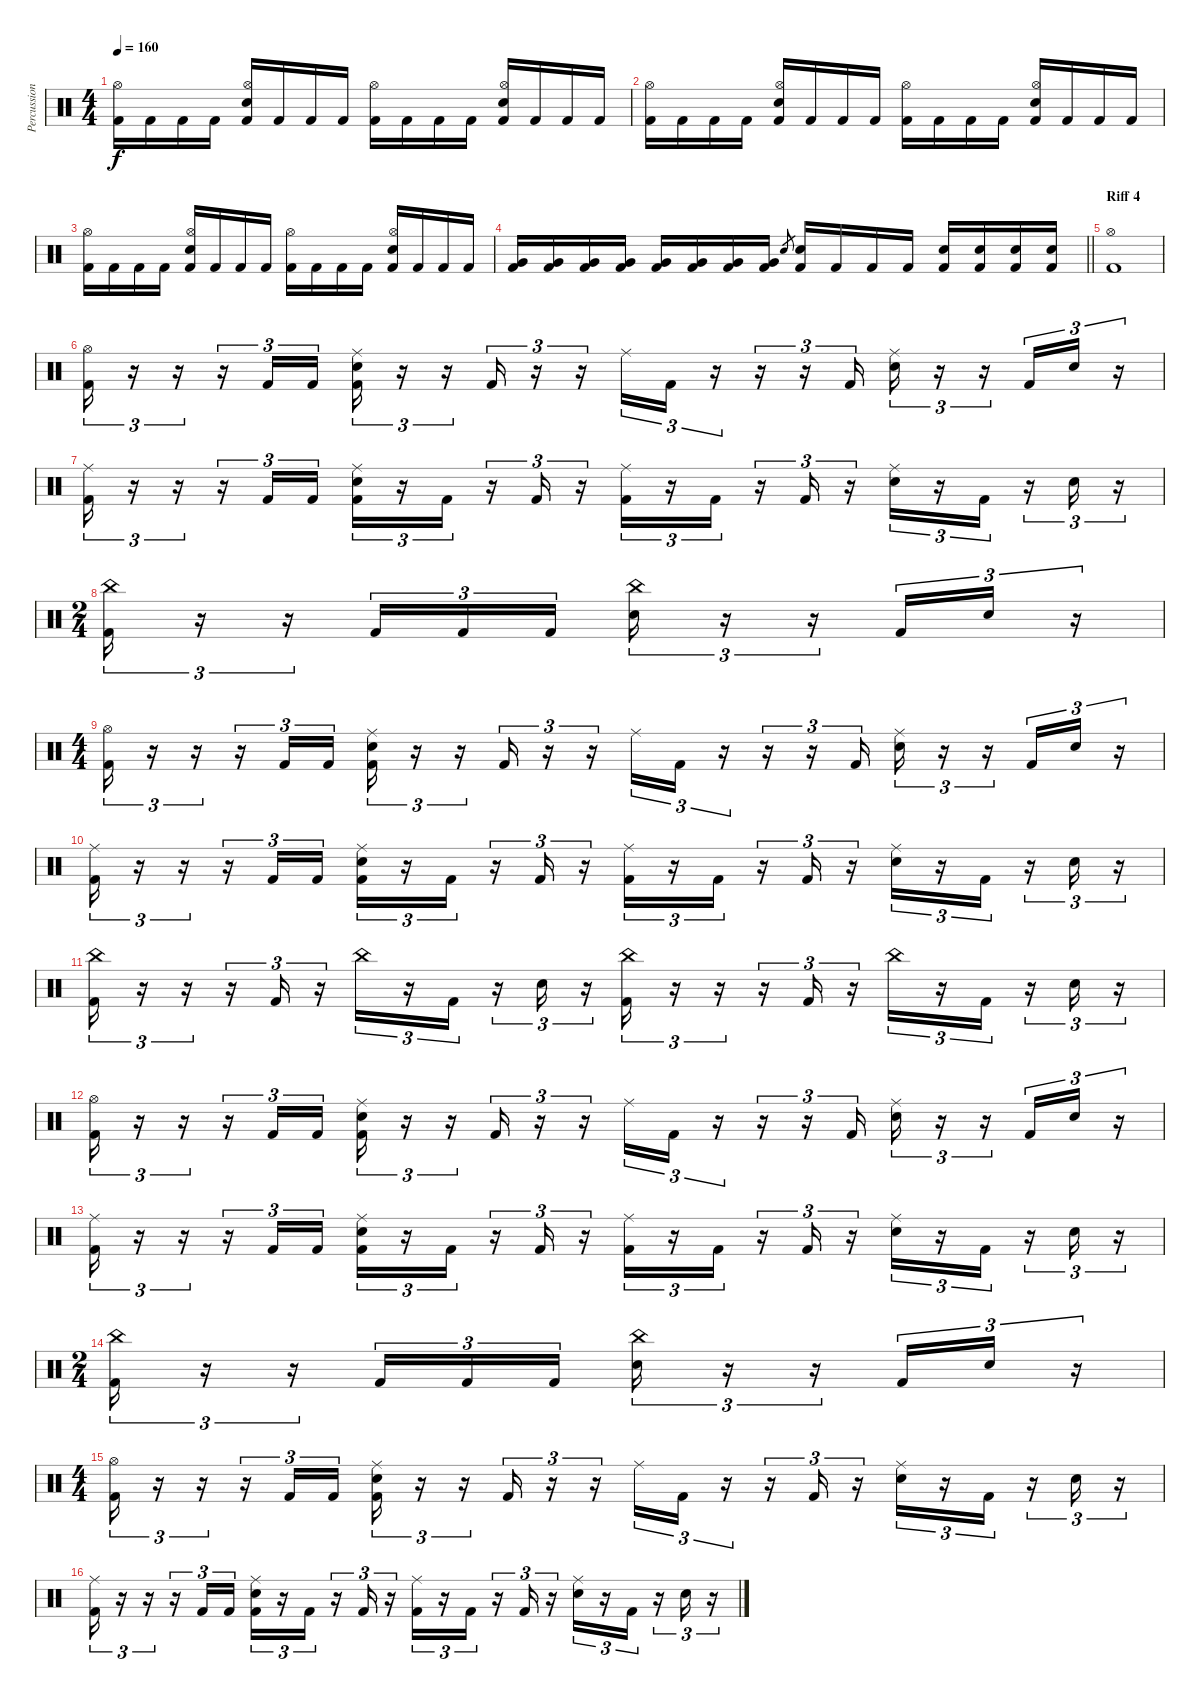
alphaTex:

\track ("Percussions" "Percussion") {instrument percussion bank 1}
\staff {score}
\articulation defaults
\ts (4 4)
\tempo 160
\clef neutral
\ks c
("Kick (hit) 2" "Hi-Hat (open)").16{dy f} "Kick (hit) 2".16 "Kick (hit) 2".16 "Kick (hit) 2".16 ("Kick (hit) 2" "Electric Snare (hit)" "Hi-Hat (open)").16 "Kick (hit) 2".16 "Kick (hit) 2".16 "Kick (hit) 2".16 ("Kick (hit) 2" "Hi-Hat (open)").16 "Kick (hit) 2".16 "Kick (hit) 2".16 "Kick (hit) 2".16 ("Kick (hit) 2" "Electric Snare (hit)" "Hi-Hat (open)").16 "Kick (hit) 2".16 "Kick (hit) 2".16 "Kick (hit) 2".16 |
("Kick (hit) 2" "Hi-Hat (open)").16 "Kick (hit) 2".16 "Kick (hit) 2".16 "Kick (hit) 2".16 ("Kick (hit) 2" "Electric Snare (hit)" "Hi-Hat (open)").16 "Kick (hit) 2".16 "Kick (hit) 2".16 "Kick (hit) 2".16 ("Kick (hit) 2" "Hi-Hat (open)").16 "Kick (hit) 2".16 "Kick (hit) 2".16 "Kick (hit) 2".16 ("Kick (hit) 2" "Electric Snare (hit)" "Hi-Hat (open)").16 "Kick (hit) 2".16 "Kick (hit) 2".16 "Kick (hit) 2".16 |
("Kick (hit) 2" "Hi-Hat (open)").16 "Kick (hit) 2".16 "Kick (hit) 2".16 "Kick (hit) 2".16 ("Kick (hit) 2" "Electric Snare (hit)" "Hi-Hat (open)").16 "Kick (hit) 2".16 "Kick (hit) 2".16 "Kick (hit) 2".16 ("Kick (hit) 2" "Hi-Hat (open)").16 "Kick (hit) 2".16 "Kick (hit) 2".16 "Kick (hit) 2".16 ("Kick (hit) 2" "Electric Snare (hit)" "Hi-Hat (open)").16 "Kick (hit) 2".16 "Kick (hit) 2".16 "Kick (hit) 2".16 |
\barLineRight lightlight
("Kick (hit) 2" "Very Low Tom (hit)").16 ("Kick (hit) 2" "Very Low Tom (hit)").16 ("Kick (hit) 2" "Very Low Tom (hit)").16 ("Kick (hit) 2" "Very Low Tom (hit)").16 ("Kick (hit) 2" "Very Low Tom (hit)").16 ("Kick (hit) 2" "Very Low Tom (hit)").16 ("Kick (hit) 2" "Very Low Tom (hit)").16 ("Kick (hit) 2" "Very Low Tom (hit)").16 "Electric Snare (hit)".8{gr} ("Kick (hit) 2" "Electric Snare (hit)").16 "Kick (hit) 2".16 "Kick (hit) 2".16 "Kick (hit) 2".16 ("Kick (hit) 2" "Electric Snare (hit)").16 ("Kick (hit) 2" "Electric Snare (hit)").16 ("Kick (hit) 2" "Electric Snare (hit)").16 ("Kick (hit) 2" "Electric Snare (hit)").16 |
\section ("" "Riff 4")
("Kick (hit) 2" "Hi-Hat (open)").1 |
("Kick (hit) 2" "Hi-Hat (open)").16{tu (3 2)} r.16{tu (3 2)} r.16{tu (3 2)} r.16{tu (3 2)} "Kick (hit) 2".16{tu (3 2)} "Kick (hit) 2".16{tu (3 2)} ("Kick (hit) 2" "Electric Snare (hit)" "Ride (middle)").16{tu (3 2)} r.16{tu (3 2)} r.16{tu (3 2)} "Kick (hit) 2".16{tu (3 2)} r.16{tu (3 2)} r.16{tu (3 2)} "Ride (middle)".16{tu (3 2)} "Kick (hit) 2".16{tu (3 2)} r.16{tu (3 2)} r.16{tu (3 2)} r.16{tu (3 2)} "Kick (hit) 2".16{tu (3 2)} ("Electric Snare (hit)" "Ride (middle)").16{tu (3 2)} r.16{tu (3 2)} r.16{tu (3 2)} "Kick (hit) 2".16{tu (3 2)} "Electric Snare (hit)".16{tu (3 2)} r.16{tu (3 2)} |
("Kick (hit) 2" "Ride (middle)").16{tu (3 2)} r.16{tu (3 2)} r.16{tu (3 2)} r.16{tu (3 2)} "Kick (hit) 2".16{tu (3 2)} "Kick (hit) 2".16{tu (3 2)} ("Kick (hit) 2" "Electric Snare (hit)" "Ride (middle)").16{tu (3 2)} r.16{tu (3 2)} "Kick (hit) 2".16{tu (3 2)} r.16{tu (3 2)} "Kick (hit) 2".16{tu (3 2)} r.16{tu (3 2)} ("Kick (hit) 2" "Ride (middle)").16{tu (3 2)} r.16{tu (3 2)} "Kick (hit) 2".16{tu (3 2)} r.16{tu (3 2)} "Kick (hit) 2".16{tu (3 2)} r.16{tu (3 2)} ("Electric Snare (hit)" "Ride (middle)").16{tu (3 2)} r.16{tu (3 2)} "Kick (hit) 2".16{tu (3 2)} r.16{tu (3 2)} "Electric Snare (hit)".16{tu (3 2)} r.16{tu (3 2)} |
\ts (2 4)
("Kick (hit) 2" "China (hit)").16{tu (3 2)} r.16{tu (3 2)} r.16{tu (3 2)} "Kick (hit) 2".16{tu (3 2)} "Kick (hit) 2".16{tu (3 2)} "Kick (hit) 2".16{tu (3 2)} ("Electric Snare (hit)" "China (hit)").16{tu (3 2)} r.16{tu (3 2)} r.16{tu (3 2)} "Kick (hit) 2".16{tu (3 2)} "Electric Snare (hit)".16{tu (3 2)} r.16{tu (3 2)} |
\ts (4 4)
("Kick (hit) 2" "Hi-Hat (open)").16{tu (3 2)} r.16{tu (3 2)} r.16{tu (3 2)} r.16{tu (3 2)} "Kick (hit) 2".16{tu (3 2)} "Kick (hit) 2".16{tu (3 2)} ("Kick (hit) 2" "Electric Snare (hit)" "Ride (middle)").16{tu (3 2)} r.16{tu (3 2)} r.16{tu (3 2)} "Kick (hit) 2".16{tu (3 2)} r.16{tu (3 2)} r.16{tu (3 2)} "Ride (middle)".16{tu (3 2)} "Kick (hit) 2".16{tu (3 2)} r.16{tu (3 2)} r.16{tu (3 2)} r.16{tu (3 2)} "Kick (hit) 2".16{tu (3 2)} ("Electric Snare (hit)" "Ride (middle)").16{tu (3 2)} r.16{tu (3 2)} r.16{tu (3 2)} "Kick (hit) 2".16{tu (3 2)} "Electric Snare (hit)".16{tu (3 2)} r.16{tu (3 2)} |
("Kick (hit) 2" "Ride (middle)").16{tu (3 2)} r.16{tu (3 2)} r.16{tu (3 2)} r.16{tu (3 2)} "Kick (hit) 2".16{tu (3 2)} "Kick (hit) 2".16{tu (3 2)} ("Kick (hit) 2" "Electric Snare (hit)" "Ride (middle)").16{tu (3 2)} r.16{tu (3 2)} "Kick (hit) 2".16{tu (3 2)} r.16{tu (3 2)} "Kick (hit) 2".16{tu (3 2)} r.16{tu (3 2)} ("Kick (hit) 2" "Ride (middle)").16{tu (3 2)} r.16{tu (3 2)} "Kick (hit) 2".16{tu (3 2)} r.16{tu (3 2)} "Kick (hit) 2".16{tu (3 2)} r.16{tu (3 2)} ("Electric Snare (hit)" "Ride (middle)").16{tu (3 2)} r.16{tu (3 2)} "Kick (hit) 2".16{tu (3 2)} r.16{tu (3 2)} "Electric Snare (hit)".16{tu (3 2)} r.16{tu (3 2)} |
("Kick (hit) 2" "China (hit)").16{tu (3 2)} r.16{tu (3 2)} r.16{tu (3 2)} r.16{tu (3 2)} "Kick (hit) 2".16{tu (3 2)} r.16{tu (3 2)} "China (hit)".16{tu (3 2)} r.16{tu (3 2)} "Kick (hit) 2".16{tu (3 2)} r.16{tu (3 2)} "Electric Snare (hit)".16{tu (3 2)} r.16{tu (3 2)} ("Kick (hit) 2" "China (hit)").16{tu (3 2)} r.16{tu (3 2)} r.16{tu (3 2)} r.16{tu (3 2)} "Kick (hit) 2".16{tu (3 2)} r.16{tu (3 2)} "China (hit)".16{tu (3 2)} r.16{tu (3 2)} "Kick (hit) 2".16{tu (3 2)} r.16{tu (3 2)} "Electric Snare (hit)".16{tu (3 2)} r.16{tu (3 2)} |
("Kick (hit) 2" "Hi-Hat (open)").16{tu (3 2)} r.16{tu (3 2)} r.16{tu (3 2)} r.16{tu (3 2)} "Kick (hit) 2".16{tu (3 2)} "Kick (hit) 2".16{tu (3 2)} ("Kick (hit) 2" "Electric Snare (hit)" "Ride (middle)").16{tu (3 2)} r.16{tu (3 2)} r.16{tu (3 2)} "Kick (hit) 2".16{tu (3 2)} r.16{tu (3 2)} r.16{tu (3 2)} "Ride (middle)".16{tu (3 2)} "Kick (hit) 2".16{tu (3 2)} r.16{tu (3 2)} r.16{tu (3 2)} r.16{tu (3 2)} "Kick (hit) 2".16{tu (3 2)} ("Electric Snare (hit)" "Ride (middle)").16{tu (3 2)} r.16{tu (3 2)} r.16{tu (3 2)} "Kick (hit) 2".16{tu (3 2)} "Electric Snare (hit)".16{tu (3 2)} r.16{tu (3 2)} |
("Kick (hit) 2" "Ride (middle)").16{tu (3 2)} r.16{tu (3 2)} r.16{tu (3 2)} r.16{tu (3 2)} "Kick (hit) 2".16{tu (3 2)} "Kick (hit) 2".16{tu (3 2)} ("Kick (hit) 2" "Electric Snare (hit)" "Ride (middle)").16{tu (3 2)} r.16{tu (3 2)} "Kick (hit) 2".16{tu (3 2)} r.16{tu (3 2)} "Kick (hit) 2".16{tu (3 2)} r.16{tu (3 2)} ("Kick (hit) 2" "Ride (middle)").16{tu (3 2)} r.16{tu (3 2)} "Kick (hit) 2".16{tu (3 2)} r.16{tu (3 2)} "Kick (hit) 2".16{tu (3 2)} r.16{tu (3 2)} ("Electric Snare (hit)" "Ride (middle)").16{tu (3 2)} r.16{tu (3 2)} "Kick (hit) 2".16{tu (3 2)} r.16{tu (3 2)} "Electric Snare (hit)".16{tu (3 2)} r.16{tu (3 2)} |
\ts (2 4)
("Kick (hit) 2" "China (hit)").16{tu (3 2)} r.16{tu (3 2)} r.16{tu (3 2)} "Kick (hit) 2".16{tu (3 2)} "Kick (hit) 2".16{tu (3 2)} "Kick (hit) 2".16{tu (3 2)} ("Electric Snare (hit)" "China (hit)").16{tu (3 2)} r.16{tu (3 2)} r.16{tu (3 2)} "Kick (hit) 2".16{tu (3 2)} "Electric Snare (hit)".16{tu (3 2)} r.16{tu (3 2)} |
\ts (4 4)
("Kick (hit) 2" "Hi-Hat (open)").16{tu (3 2)} r.16{tu (3 2)} r.16{tu (3 2)} r.16{tu (3 2)} "Kick (hit) 2".16{tu (3 2)} "Kick (hit) 2".16{tu (3 2)} ("Kick (hit) 2" "Electric Snare (hit)" "Ride (middle)").16{tu (3 2)} r.16{tu (3 2)} r.16{tu (3 2)} "Kick (hit) 2".16{tu (3 2)} r.16{tu (3 2)} r.16{tu (3 2)} "Ride (middle)".16{tu (3 2)} "Kick (hit) 2".16{tu (3 2)} r.16{tu (3 2)} r.16{tu (3 2)} "Kick (hit) 2".16{tu (3 2)} r.16{tu (3 2)} ("Electric Snare (hit)" "Ride (middle)").16{tu (3 2)} r.16{tu (3 2)} "Kick (hit) 2".16{tu (3 2)} r.16{tu (3 2)} "Electric Snare (hit)".16{tu (3 2)} r.16{tu (3 2)} |
("Kick (hit) 2" "Ride (middle)").16{tu (3 2)} r.16{tu (3 2)} r.16{tu (3 2)} r.16{tu (3 2)} "Kick (hit) 2".16{tu (3 2)} "Kick (hit) 2".16{tu (3 2)} ("Kick (hit) 2" "Electric Snare (hit)" "Ride (middle)").16{tu (3 2)} r.16{tu (3 2)} "Kick (hit) 2".16{tu (3 2)} r.16{tu (3 2)} "Kick (hit) 2".16{tu (3 2)} r.16{tu (3 2)} ("Kick (hit) 2" "Ride (middle)").16{tu (3 2)} r.16{tu (3 2)} "Kick (hit) 2".16{tu (3 2)} r.16{tu (3 2)} "Kick (hit) 2".16{tu (3 2)} r.16{tu (3 2)} ("Electric Snare (hit)" "Ride (middle)").16{tu (3 2)} r.16{tu (3 2)} "Kick (hit) 2".16{tu (3 2)} r.16{tu (3 2)} "Electric Snare (hit)".16{tu (3 2)} r.16{tu (3 2)}
